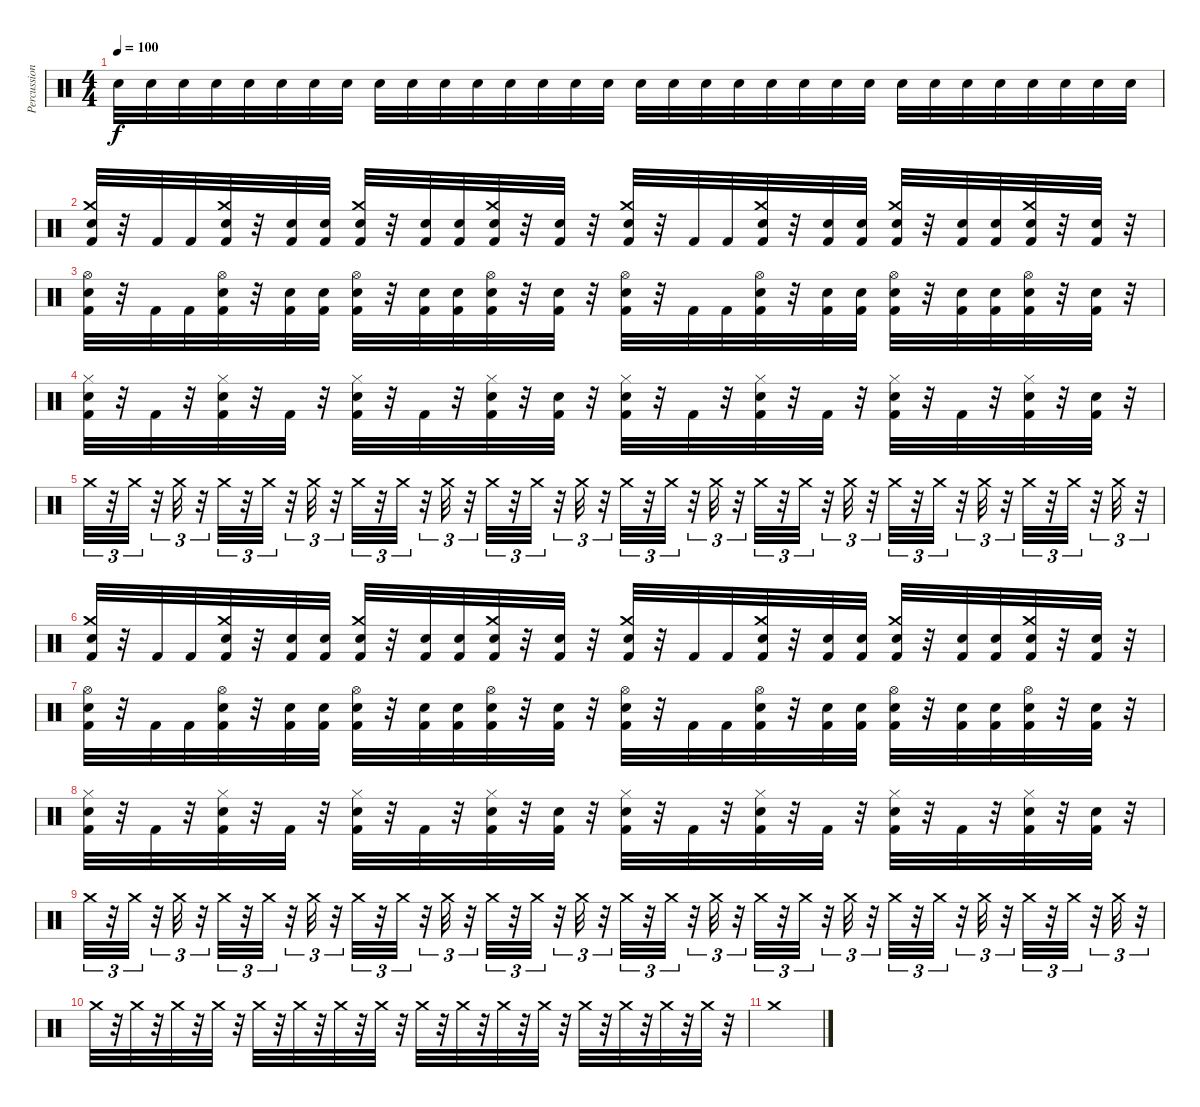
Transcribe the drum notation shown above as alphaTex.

\track ("Percussion" "Percussion") {instrument percussion}
\staff {score}
\articulation defaults
\ts (4 4)
\tempo 100
\clef neutral
\ks c "Snare (hit) 2".32{dy f} "Snare (hit) 2".32 "Snare (hit) 2".32 "Snare (hit) 2".32 "Snare (hit) 2".32 "Snare (hit) 2".32 "Snare (hit) 2".32 "Snare (hit) 2".32 "Snare (hit) 2".32 "Snare (hit) 2".32 "Snare (hit) 2".32 "Snare (hit) 2".32 "Snare (hit) 2".32 "Snare (hit) 2".32 "Snare (hit) 2".32 "Snare (hit) 2".32 "Snare (hit) 2".32 "Snare (hit) 2".32 "Snare (hit) 2".32 "Snare (hit) 2".32 "Snare (hit) 2".32 "Snare (hit) 2".32 "Snare (hit) 2".32 "Snare (hit) 2".32 "Snare (hit) 2".32 "Snare (hit) 2".32 "Snare (hit) 2".32 "Snare (hit) 2".32 "Snare (hit) 2".32 "Snare (hit) 2".32 "Snare (hit) 2".32 "Snare (hit) 2".32
|
("Snare (hit) 2" "Crash medium (hit)" "Kick (hit) 2").32 r.32 "Kick (hit) 2".32 "Kick (hit) 2".32 ("Snare (hit) 2" "Crash medium (hit)" "Kick (hit) 2").32 r.32 ("Snare (hit) 2" "Kick (hit) 2").32 ("Snare (hit) 2" "Kick (hit) 2").32 ("Snare (hit) 2" "Crash medium (hit)" "Kick (hit) 2").32 r.32 ("Snare (hit) 2" "Kick (hit) 2").32 ("Snare (hit) 2" "Kick (hit) 2").32 ("Snare (hit) 2" "Crash medium (hit)" "Kick (hit) 2").32 r.32 ("Snare (hit) 2" "Kick (hit) 2").32 r.32 ("Snare (hit) 2" "Crash medium (hit)" "Kick (hit) 2").32 r.32 "Kick (hit) 2".32 "Kick (hit) 2".32 ("Snare (hit) 2" "Crash medium (hit)" "Kick (hit) 2").32 r.32 ("Snare (hit) 2" "Kick (hit) 2").32 ("Snare (hit) 2" "Kick (hit) 2").32 ("Snare (hit) 2" "Crash medium (hit)" "Kick (hit) 2").32 r.32 ("Snare (hit) 2" "Kick (hit) 2").32 ("Snare (hit) 2" "Kick (hit) 2").32 ("Snare (hit) 2" "Crash medium (hit)" "Kick (hit) 2").32 r.32 ("Snare (hit) 2" "Kick (hit) 2").32 r.32 |
("Snare (hit) 2" "Hi-Hat (open)" "Kick (hit) 2").32 r.32 "Kick (hit) 2".32 "Kick (hit) 2".32 ("Snare (hit) 2" "Hi-Hat (open)" "Kick (hit) 2").32 r.32 ("Snare (hit) 2" "Kick (hit) 2").32 ("Snare (hit) 2" "Kick (hit) 2").32 ("Snare (hit) 2" "Hi-Hat (open)" "Kick (hit) 2").32 r.32 ("Snare (hit) 2" "Kick (hit) 2").32 ("Snare (hit) 2" "Kick (hit) 2").32 ("Snare (hit) 2" "Hi-Hat (open)" "Kick (hit) 2").32 r.32 ("Snare (hit) 2" "Kick (hit) 2").32 r.32 ("Snare (hit) 2" "Hi-Hat (open)" "Kick (hit) 2").32 r.32 "Kick (hit) 2".32 "Kick (hit) 2".32 ("Snare (hit) 2" "Hi-Hat (open)" "Kick (hit) 2").32 r.32 ("Snare (hit) 2" "Kick (hit) 2").32 ("Snare (hit) 2" "Kick (hit) 2").32 ("Snare (hit) 2" "Hi-Hat (open)" "Kick (hit) 2").32 r.32 ("Snare (hit) 2" "Kick (hit) 2").32 ("Snare (hit) 2" "Kick (hit) 2").32 ("Snare (hit) 2" "Hi-Hat (open)" "Kick (hit) 2").32 r.32 ("Snare (hit) 2" "Kick (hit) 2").32 r.32 |
("Snare (hit) 2" "Hi-Hat (closed)" "Kick (hit) 2").32 r.32 "Kick (hit) 2".32 r.32 ("Snare (hit) 2" "Hi-Hat (closed)" "Kick (hit) 2").32 r.32 "Kick (hit) 2".32 r.32 ("Snare (hit) 2" "Hi-Hat (closed)" "Kick (hit) 2").32 r.32 "Kick (hit) 2".32 r.32 ("Snare (hit) 2" "Hi-Hat (closed)" "Kick (hit) 2").32 r.32 ("Snare (hit) 2" "Kick (hit) 2").32 r.32 ("Snare (hit) 2" "Hi-Hat (closed)" "Kick (hit) 2").32 r.32 "Kick (hit) 2".32 r.32 ("Snare (hit) 2" "Hi-Hat (closed)" "Kick (hit) 2").32 r.32 "Kick (hit) 2".32 r.32 ("Snare (hit) 2" "Hi-Hat (closed)" "Kick (hit) 2").32 r.32 "Kick (hit) 2".32 r.32 ("Snare (hit) 2" "Hi-Hat (closed)" "Kick (hit) 2").32 r.32 ("Snare (hit) 2" "Kick (hit) 2").32 r.32 |
"Crash medium (hit)".32{tu (3 2)} r.32{tu (3 2)} "Crash medium (hit)".32{tu (3 2)} r.32{tu (3 2)} "Crash medium (hit)".32{tu (3 2)} r.32{tu (3 2)} "Crash medium (hit)".32{tu (3 2)} r.32{tu (3 2)} "Crash medium (hit)".32{tu (3 2)} r.32{tu (3 2)} "Crash medium (hit)".32{tu (3 2)} r.32{tu (3 2)} "Crash medium (hit)".32{tu (3 2)} r.32{tu (3 2)} "Crash medium (hit)".32{tu (3 2)} r.32{tu (3 2)} "Crash medium (hit)".32{tu (3 2)} r.32{tu (3 2)} "Crash medium (hit)".32{tu (3 2)} r.32{tu (3 2)} "Crash medium (hit)".32{tu (3 2)} r.32{tu (3 2)} "Crash medium (hit)".32{tu (3 2)} r.32{tu (3 2)} "Crash medium (hit)".32{tu (3 2)} r.32{tu (3 2)} "Crash medium (hit)".32{tu (3 2)} r.32{tu (3 2)} "Crash medium (hit)".32{tu (3 2)} r.32{tu (3 2)} "Crash medium (hit)".32{tu (3 2)} r.32{tu (3 2)} "Crash medium (hit)".32{tu (3 2)} r.32{tu (3 2)} "Crash medium (hit)".32{tu (3 2)} r.32{tu (3 2)} "Crash medium (hit)".32{tu (3 2)} r.32{tu (3 2)} "Crash medium (hit)".32{tu (3 2)} r.32{tu (3 2)} "Crash medium (hit)".32{tu (3 2)} r.32{tu (3 2)} "Crash medium (hit)".32{tu (3 2)} r.32{tu (3 2)} "Crash medium (hit)".32{tu (3 2)} r.32{tu (3 2)} "Crash medium (hit)".32{tu (3 2)} r.32{tu (3 2)} |
("Snare (hit) 2" "Crash medium (hit)" "Kick (hit) 2").32 r.32 "Kick (hit) 2".32 "Kick (hit) 2".32 ("Snare (hit) 2" "Crash medium (hit)" "Kick (hit) 2").32 r.32 ("Snare (hit) 2" "Kick (hit) 2").32 ("Snare (hit) 2" "Kick (hit) 2").32 ("Snare (hit) 2" "Crash medium (hit)" "Kick (hit) 2").32 r.32 ("Snare (hit) 2" "Kick (hit) 2").32 ("Snare (hit) 2" "Kick (hit) 2").32 ("Snare (hit) 2" "Crash medium (hit)" "Kick (hit) 2").32 r.32 ("Snare (hit) 2" "Kick (hit) 2").32 r.32 ("Snare (hit) 2" "Crash medium (hit)" "Kick (hit) 2").32 r.32 "Kick (hit) 2".32 "Kick (hit) 2".32 ("Snare (hit) 2" "Crash medium (hit)" "Kick (hit) 2").32 r.32 ("Snare (hit) 2" "Kick (hit) 2").32 ("Snare (hit) 2" "Kick (hit) 2").32 ("Snare (hit) 2" "Crash medium (hit)" "Kick (hit) 2").32 r.32 ("Snare (hit) 2" "Kick (hit) 2").32 ("Snare (hit) 2" "Kick (hit) 2").32 ("Snare (hit) 2" "Crash medium (hit)" "Kick (hit) 2").32 r.32 ("Snare (hit) 2" "Kick (hit) 2").32 r.32 |
("Snare (hit) 2" "Hi-Hat (open)" "Kick (hit) 2").32 r.32 "Kick (hit) 2".32 "Kick (hit) 2".32 ("Snare (hit) 2" "Hi-Hat (open)" "Kick (hit) 2").32 r.32 ("Snare (hit) 2" "Kick (hit) 2").32 ("Snare (hit) 2" "Kick (hit) 2").32 ("Snare (hit) 2" "Hi-Hat (open)" "Kick (hit) 2").32 r.32 ("Snare (hit) 2" "Kick (hit) 2").32 ("Snare (hit) 2" "Kick (hit) 2").32 ("Snare (hit) 2" "Hi-Hat (open)" "Kick (hit) 2").32 r.32 ("Snare (hit) 2" "Kick (hit) 2").32 r.32 ("Snare (hit) 2" "Hi-Hat (open)" "Kick (hit) 2").32 r.32 "Kick (hit) 2".32 "Kick (hit) 2".32 ("Snare (hit) 2" "Hi-Hat (open)" "Kick (hit) 2").32 r.32 ("Snare (hit) 2" "Kick (hit) 2").32 ("Snare (hit) 2" "Kick (hit) 2").32 ("Snare (hit) 2" "Hi-Hat (open)" "Kick (hit) 2").32 r.32 ("Snare (hit) 2" "Kick (hit) 2").32 ("Snare (hit) 2" "Kick (hit) 2").32 ("Snare (hit) 2" "Hi-Hat (open)" "Kick (hit) 2").32 r.32 ("Snare (hit) 2" "Kick (hit) 2").32 r.32 |
("Snare (hit) 2" "Hi-Hat (closed)" "Kick (hit) 2").32 r.32 "Kick (hit) 2".32 r.32 ("Snare (hit) 2" "Hi-Hat (closed)" "Kick (hit) 2").32 r.32 "Kick (hit) 2".32 r.32 ("Snare (hit) 2" "Hi-Hat (closed)" "Kick (hit) 2").32 r.32 "Kick (hit) 2".32 r.32 ("Snare (hit) 2" "Hi-Hat (closed)" "Kick (hit) 2").32 r.32 ("Snare (hit) 2" "Kick (hit) 2").32 r.32 ("Snare (hit) 2" "Hi-Hat (closed)" "Kick (hit) 2").32 r.32 "Kick (hit) 2".32 r.32 ("Snare (hit) 2" "Hi-Hat (closed)" "Kick (hit) 2").32 r.32 "Kick (hit) 2".32 r.32 ("Snare (hit) 2" "Hi-Hat (closed)" "Kick (hit) 2").32 r.32 "Kick (hit) 2".32 r.32 ("Snare (hit) 2" "Hi-Hat (closed)" "Kick (hit) 2").32 r.32 ("Snare (hit) 2" "Kick (hit) 2").32 r.32 |
"Crash medium (hit)".32{tu (3 2)} r.32{tu (3 2)} "Crash medium (hit)".32{tu (3 2)} r.32{tu (3 2)} "Crash medium (hit)".32{tu (3 2)} r.32{tu (3 2)} "Crash medium (hit)".32{tu (3 2)} r.32{tu (3 2)} "Crash medium (hit)".32{tu (3 2)} r.32{tu (3 2)} "Crash medium (hit)".32{tu (3 2)} r.32{tu (3 2)} "Crash medium (hit)".32{tu (3 2)} r.32{tu (3 2)} "Crash medium (hit)".32{tu (3 2)} r.32{tu (3 2)} "Crash medium (hit)".32{tu (3 2)} r.32{tu (3 2)} "Crash medium (hit)".32{tu (3 2)} r.32{tu (3 2)} "Crash medium (hit)".32{tu (3 2)} r.32{tu (3 2)} "Crash medium (hit)".32{tu (3 2)} r.32{tu (3 2)} "Crash medium (hit)".32{tu (3 2)} r.32{tu (3 2)} "Crash medium (hit)".32{tu (3 2)} r.32{tu (3 2)} "Crash medium (hit)".32{tu (3 2)} r.32{tu (3 2)} "Crash medium (hit)".32{tu (3 2)} r.32{tu (3 2)} "Crash medium (hit)".32{tu (3 2)} r.32{tu (3 2)} "Crash medium (hit)".32{tu (3 2)} r.32{tu (3 2)} "Crash medium (hit)".32{tu (3 2)} r.32{tu (3 2)} "Crash medium (hit)".32{tu (3 2)} r.32{tu (3 2)} "Crash medium (hit)".32{tu (3 2)} r.32{tu (3 2)} "Crash medium (hit)".32{tu (3 2)} r.32{tu (3 2)} "Crash medium (hit)".32{tu (3 2)} r.32{tu (3 2)} "Crash medium (hit)".32{tu (3 2)} r.32{tu (3 2)} |
"Crash medium (hit)".32 r.32 "Crash medium (hit)".32 r.32 "Crash medium (hit)".32 r.32 "Crash medium (hit)".32 r.32 "Crash medium (hit)".32 r.32 "Crash medium (hit)".32 r.32 "Crash medium (hit)".32 r.32 "Crash medium (hit)".32 r.32 "Crash medium (hit)".32 r.32 "Crash medium (hit)".32 r.32 "Crash medium (hit)".32 r.32 "Crash medium (hit)".32 r.32 "Crash medium (hit)".32 r.32 "Crash medium (hit)".32 r.32 "Crash medium (hit)".32 r.32 "Crash medium (hit)".32 r.32 |
"Crash medium (hit)".1
